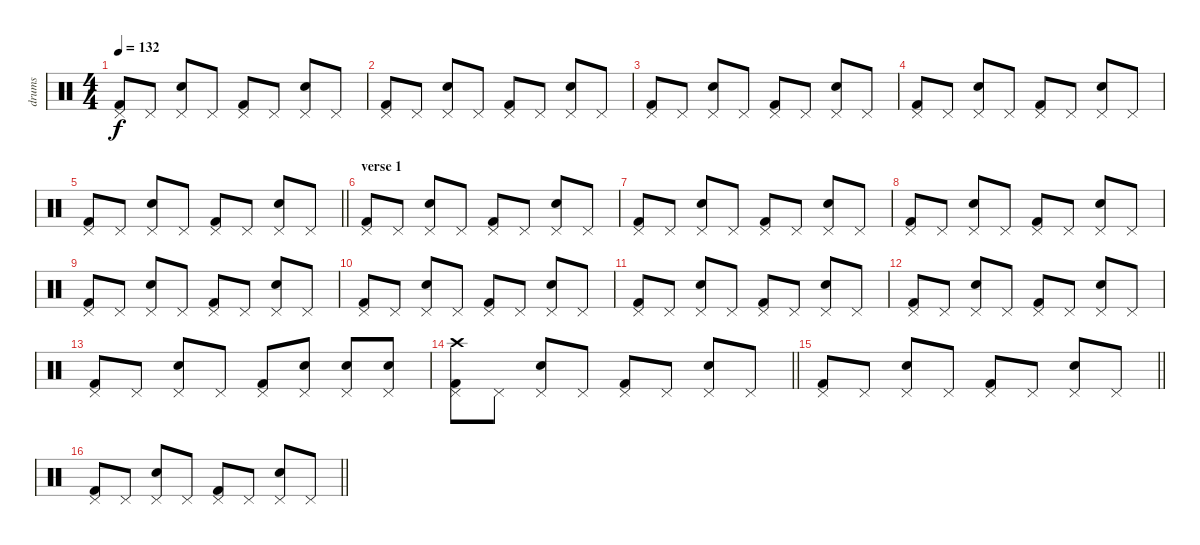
\track ("drums" "drums") {instrument percussion}
\staff {score}
\articulation defaults
\ts (4 4)
\tempo 132
\clef neutral
\ks c
("Kick (hit) 2" "Pedal Hi-Hat (hit)").8{dy f} "Pedal Hi-Hat (hit)".8 ("Electric Snare (hit)" "Pedal Hi-Hat (hit)").8 "Pedal Hi-Hat (hit)".8 ("Kick (hit) 2" "Pedal Hi-Hat (hit)").8 "Pedal Hi-Hat (hit)".8 ("Electric Snare (hit)" "Pedal Hi-Hat (hit)").8 "Pedal Hi-Hat (hit)".8 |
("Kick (hit) 2" "Pedal Hi-Hat (hit)").8 "Pedal Hi-Hat (hit)".8 ("Electric Snare (hit)" "Pedal Hi-Hat (hit)").8 "Pedal Hi-Hat (hit)".8 ("Kick (hit) 2" "Pedal Hi-Hat (hit)").8 "Pedal Hi-Hat (hit)".8 ("Electric Snare (hit)" "Pedal Hi-Hat (hit)").8 "Pedal Hi-Hat (hit)".8 |
("Kick (hit) 2" "Pedal Hi-Hat (hit)").8 "Pedal Hi-Hat (hit)".8 ("Electric Snare (hit)" "Pedal Hi-Hat (hit)").8 "Pedal Hi-Hat (hit)".8 ("Kick (hit) 2" "Pedal Hi-Hat (hit)").8 "Pedal Hi-Hat (hit)".8 ("Electric Snare (hit)" "Pedal Hi-Hat (hit)").8 "Pedal Hi-Hat (hit)".8 |
("Kick (hit) 2" "Pedal Hi-Hat (hit)").8 "Pedal Hi-Hat (hit)".8 ("Electric Snare (hit)" "Pedal Hi-Hat (hit)").8 "Pedal Hi-Hat (hit)".8 ("Kick (hit) 2" "Pedal Hi-Hat (hit)").8 "Pedal Hi-Hat (hit)".8 ("Electric Snare (hit)" "Pedal Hi-Hat (hit)").8 "Pedal Hi-Hat (hit)".8 |
\barLineRight lightlight
("Kick (hit) 2" "Pedal Hi-Hat (hit)").8 "Pedal Hi-Hat (hit)".8 ("Electric Snare (hit)" "Pedal Hi-Hat (hit)").8 "Pedal Hi-Hat (hit)".8 ("Kick (hit) 2" "Pedal Hi-Hat (hit)").8 "Pedal Hi-Hat (hit)".8 ("Electric Snare (hit)" "Pedal Hi-Hat (hit)").8 "Pedal Hi-Hat (hit)".8 |
\section ("" "verse 1")
("Kick (hit) 2" "Pedal Hi-Hat (hit)").8 "Pedal Hi-Hat (hit)".8 ("Electric Snare (hit)" "Pedal Hi-Hat (hit)").8 "Pedal Hi-Hat (hit)".8 ("Kick (hit) 2" "Pedal Hi-Hat (hit)").8 "Pedal Hi-Hat (hit)".8 ("Electric Snare (hit)" "Pedal Hi-Hat (hit)").8 "Pedal Hi-Hat (hit)".8 |
("Kick (hit) 2" "Pedal Hi-Hat (hit)").8 "Pedal Hi-Hat (hit)".8 ("Electric Snare (hit)" "Pedal Hi-Hat (hit)").8 "Pedal Hi-Hat (hit)".8 ("Kick (hit) 2" "Pedal Hi-Hat (hit)").8 "Pedal Hi-Hat (hit)".8 ("Electric Snare (hit)" "Pedal Hi-Hat (hit)").8 "Pedal Hi-Hat (hit)".8 |
("Kick (hit) 2" "Pedal Hi-Hat (hit)").8 "Pedal Hi-Hat (hit)".8 ("Electric Snare (hit)" "Pedal Hi-Hat (hit)").8 "Pedal Hi-Hat (hit)".8 ("Kick (hit) 2" "Pedal Hi-Hat (hit)").8 "Pedal Hi-Hat (hit)".8 ("Electric Snare (hit)" "Pedal Hi-Hat (hit)").8 "Pedal Hi-Hat (hit)".8 |
("Kick (hit) 2" "Pedal Hi-Hat (hit)").8 "Pedal Hi-Hat (hit)".8 ("Electric Snare (hit)" "Pedal Hi-Hat (hit)").8 "Pedal Hi-Hat (hit)".8 ("Kick (hit) 2" "Pedal Hi-Hat (hit)").8 "Pedal Hi-Hat (hit)".8 ("Electric Snare (hit)" "Pedal Hi-Hat (hit)").8 "Pedal Hi-Hat (hit)".8 |
("Kick (hit) 2" "Pedal Hi-Hat (hit)").8 "Pedal Hi-Hat (hit)".8 ("Electric Snare (hit)" "Pedal Hi-Hat (hit)").8 "Pedal Hi-Hat (hit)".8 ("Kick (hit) 2" "Pedal Hi-Hat (hit)").8 "Pedal Hi-Hat (hit)".8 ("Electric Snare (hit)" "Pedal Hi-Hat (hit)").8 "Pedal Hi-Hat (hit)".8 |
("Kick (hit) 2" "Pedal Hi-Hat (hit)").8 "Pedal Hi-Hat (hit)".8 ("Electric Snare (hit)" "Pedal Hi-Hat (hit)").8 "Pedal Hi-Hat (hit)".8 ("Kick (hit) 2" "Pedal Hi-Hat (hit)").8 "Pedal Hi-Hat (hit)".8 ("Electric Snare (hit)" "Pedal Hi-Hat (hit)").8 "Pedal Hi-Hat (hit)".8 |
("Kick (hit) 2" "Pedal Hi-Hat (hit)").8 "Pedal Hi-Hat (hit)".8 ("Electric Snare (hit)" "Pedal Hi-Hat (hit)").8 "Pedal Hi-Hat (hit)".8 ("Kick (hit) 2" "Pedal Hi-Hat (hit)").8 "Pedal Hi-Hat (hit)".8 ("Electric Snare (hit)" "Pedal Hi-Hat (hit)").8 "Pedal Hi-Hat (hit)".8 |
("Kick (hit) 2" "Pedal Hi-Hat (hit)").8 "Pedal Hi-Hat (hit)".8 ("Electric Snare (hit)" "Pedal Hi-Hat (hit)").8 "Pedal Hi-Hat (hit)".8 ("Kick (hit) 2" "Pedal Hi-Hat (hit)").8 ("Electric Snare (hit)" "Pedal Hi-Hat (hit)").8 ("Electric Snare (hit)" "Pedal Hi-Hat (hit)").8 ("Electric Snare (hit)" "Pedal Hi-Hat (hit)").8 |
\barLineRight lightlight
("Kick (hit) 2" "Pedal Hi-Hat (hit)" "Crash high (hit)").8 "Pedal Hi-Hat (hit)".8 ("Electric Snare (hit)" "Pedal Hi-Hat (hit)").8 "Pedal Hi-Hat (hit)".8 ("Kick (hit) 2" "Pedal Hi-Hat (hit)").8 "Pedal Hi-Hat (hit)".8 ("Electric Snare (hit)" "Pedal Hi-Hat (hit)").8 "Pedal Hi-Hat (hit)".8 |
\barLineRight lightlight
("Kick (hit) 2" "Pedal Hi-Hat (hit)").8 "Pedal Hi-Hat (hit)".8 ("Electric Snare (hit)" "Pedal Hi-Hat (hit)").8 "Pedal Hi-Hat (hit)".8 ("Kick (hit) 2" "Pedal Hi-Hat (hit)").8 "Pedal Hi-Hat (hit)".8 ("Electric Snare (hit)" "Pedal Hi-Hat (hit)").8 "Pedal Hi-Hat (hit)".8 |
\barLineRight lightlight
("Kick (hit) 2" "Pedal Hi-Hat (hit)").8 "Pedal Hi-Hat (hit)".8 ("Electric Snare (hit)" "Pedal Hi-Hat (hit)").8 "Pedal Hi-Hat (hit)".8 ("Kick (hit) 2" "Pedal Hi-Hat (hit)").8 "Pedal Hi-Hat (hit)".8 ("Electric Snare (hit)" "Pedal Hi-Hat (hit)").8 "Pedal Hi-Hat (hit)".8
